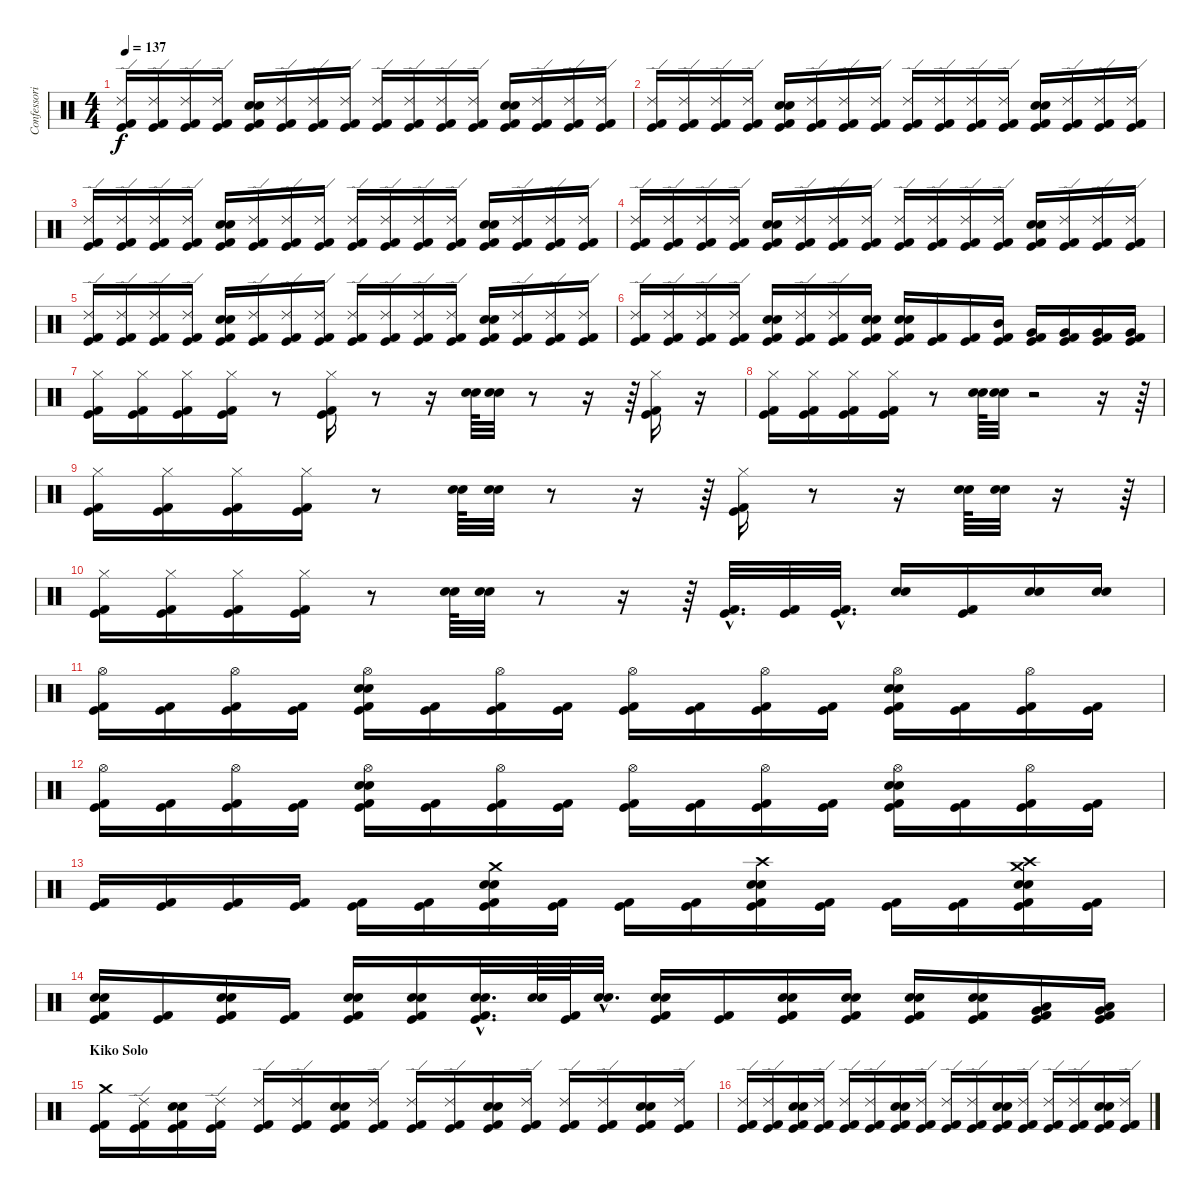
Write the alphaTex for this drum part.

\track ("Confessori" "Confessori") {instrument percussion}
\staff {score}
\articulation defaults
\ts (4 4)
\tempo 137
\clef neutral
\ks c
("Ride (edge) 2" "Kick (hit) 2" "Kick (hit)").16{dy f} ("Ride (edge) 2" "Kick (hit) 2" "Kick (hit)").16 ("Ride (edge) 2" "Kick (hit) 2" "Kick (hit)").16 ("Ride (edge) 2" "Kick (hit) 2" "Kick (hit)").16 ("Electric Snare (hit)" "Snare (hit) 2" "Kick (hit) 2" "Kick (hit)").16 ("Ride (edge) 2" "Kick (hit) 2" "Kick (hit)").16 ("Ride (edge) 2" "Kick (hit) 2" "Kick (hit)").16 ("Ride (edge) 2" "Kick (hit) 2" "Kick (hit)").16 ("Ride (edge) 2" "Kick (hit) 2" "Kick (hit)").16 ("Ride (edge) 2" "Kick (hit) 2" "Kick (hit)").16 ("Ride (edge) 2" "Kick (hit) 2" "Kick (hit)").16 ("Ride (edge) 2" "Kick (hit) 2" "Kick (hit)").16 ("Electric Snare (hit)" "Snare (hit) 2" "Kick (hit) 2" "Kick (hit)").16 ("Ride (edge) 2" "Kick (hit) 2" "Kick (hit)").16 ("Ride (edge) 2" "Kick (hit) 2" "Kick (hit)").16 ("Ride (edge) 2" "Kick (hit) 2" "Kick (hit)").16 |
("Ride (edge) 2" "Kick (hit) 2" "Kick (hit)").16 ("Ride (edge) 2" "Kick (hit) 2" "Kick (hit)").16 ("Ride (edge) 2" "Kick (hit) 2" "Kick (hit)").16 ("Ride (edge) 2" "Kick (hit) 2" "Kick (hit)").16 ("Electric Snare (hit)" "Snare (hit) 2" "Kick (hit) 2" "Kick (hit)").16 ("Ride (edge) 2" "Kick (hit) 2" "Kick (hit)").16 ("Ride (edge) 2" "Kick (hit) 2" "Kick (hit)").16 ("Ride (edge) 2" "Kick (hit) 2" "Kick (hit)").16 ("Ride (edge) 2" "Kick (hit) 2" "Kick (hit)").16 ("Ride (edge) 2" "Kick (hit) 2" "Kick (hit)").16 ("Ride (edge) 2" "Kick (hit) 2" "Kick (hit)").16 ("Ride (edge) 2" "Kick (hit) 2" "Kick (hit)").16 ("Electric Snare (hit)" "Snare (hit) 2" "Kick (hit) 2" "Kick (hit)").16 ("Ride (edge) 2" "Kick (hit) 2" "Kick (hit)").16 ("Ride (edge) 2" "Kick (hit) 2" "Kick (hit)").16 ("Ride (edge) 2" "Kick (hit) 2" "Kick (hit)").16 |
("Ride (edge) 2" "Kick (hit) 2" "Kick (hit)").16 ("Ride (edge) 2" "Kick (hit) 2" "Kick (hit)").16 ("Ride (edge) 2" "Kick (hit) 2" "Kick (hit)").16 ("Ride (edge) 2" "Kick (hit) 2" "Kick (hit)").16 ("Electric Snare (hit)" "Snare (hit) 2" "Kick (hit) 2" "Kick (hit)").16 ("Ride (edge) 2" "Kick (hit) 2" "Kick (hit)").16 ("Ride (edge) 2" "Kick (hit) 2" "Kick (hit)").16 ("Ride (edge) 2" "Kick (hit) 2" "Kick (hit)").16 ("Ride (edge) 2" "Kick (hit) 2" "Kick (hit)").16 ("Ride (edge) 2" "Kick (hit) 2" "Kick (hit)").16 ("Ride (edge) 2" "Kick (hit) 2" "Kick (hit)").16 ("Ride (edge) 2" "Kick (hit) 2" "Kick (hit)").16 ("Electric Snare (hit)" "Snare (hit) 2" "Kick (hit) 2" "Kick (hit)").16 ("Ride (edge) 2" "Kick (hit) 2" "Kick (hit)").16 ("Ride (edge) 2" "Kick (hit) 2" "Kick (hit)").16 ("Ride (edge) 2" "Kick (hit) 2" "Kick (hit)").16 |
("Ride (edge) 2" "Kick (hit) 2" "Kick (hit)").16 ("Ride (edge) 2" "Kick (hit) 2" "Kick (hit)").16 ("Ride (edge) 2" "Kick (hit) 2" "Kick (hit)").16 ("Ride (edge) 2" "Kick (hit) 2" "Kick (hit)").16 ("Electric Snare (hit)" "Snare (hit) 2" "Kick (hit) 2" "Kick (hit)").16 ("Ride (edge) 2" "Kick (hit) 2" "Kick (hit)").16 ("Ride (edge) 2" "Kick (hit) 2" "Kick (hit)").16 ("Ride (edge) 2" "Kick (hit) 2" "Kick (hit)").16 ("Ride (edge) 2" "Kick (hit) 2" "Kick (hit)").16 ("Ride (edge) 2" "Kick (hit) 2" "Kick (hit)").16 ("Ride (edge) 2" "Kick (hit) 2" "Kick (hit)").16 ("Ride (edge) 2" "Kick (hit) 2" "Kick (hit)").16 ("Electric Snare (hit)" "Snare (hit) 2" "Kick (hit) 2" "Kick (hit)").16 ("Ride (edge) 2" "Kick (hit) 2" "Kick (hit)").16 ("Ride (edge) 2" "Kick (hit) 2" "Kick (hit)").16 ("Ride (edge) 2" "Kick (hit) 2" "Kick (hit)").16 |
("Ride (edge) 2" "Kick (hit) 2" "Kick (hit)").16 ("Ride (edge) 2" "Kick (hit) 2" "Kick (hit)").16 ("Ride (edge) 2" "Kick (hit) 2" "Kick (hit)").16 ("Ride (edge) 2" "Kick (hit) 2" "Kick (hit)").16 ("Electric Snare (hit)" "Snare (hit) 2" "Kick (hit) 2" "Kick (hit)").16 ("Ride (edge) 2" "Kick (hit) 2" "Kick (hit)").16 ("Ride (edge) 2" "Kick (hit) 2" "Kick (hit)").16 ("Ride (edge) 2" "Kick (hit) 2" "Kick (hit)").16 ("Ride (edge) 2" "Kick (hit) 2" "Kick (hit)").16 ("Ride (edge) 2" "Kick (hit) 2" "Kick (hit)").16 ("Ride (edge) 2" "Kick (hit) 2" "Kick (hit)").16 ("Ride (edge) 2" "Kick (hit) 2" "Kick (hit)").16 ("Electric Snare (hit)" "Snare (hit) 2" "Kick (hit) 2" "Kick (hit)").16 ("Ride (edge) 2" "Kick (hit) 2" "Kick (hit)").16 ("Ride (edge) 2" "Kick (hit) 2" "Kick (hit)").16 ("Ride (edge) 2" "Kick (hit) 2" "Kick (hit)").16 |
("Ride (edge) 2" "Kick (hit) 2" "Kick (hit)").16 ("Ride (edge) 2" "Kick (hit) 2" "Kick (hit)").16 ("Ride (edge) 2" "Kick (hit) 2" "Kick (hit)").16 ("Ride (edge) 2" "Kick (hit) 2" "Kick (hit)").16 ("Electric Snare (hit)" "Snare (hit) 2" "Kick (hit) 2" "Kick (hit)").16 ("Ride (edge) 2" "Kick (hit) 2" "Kick (hit)").16 ("Ride (edge) 2" "Kick (hit) 2" "Kick (hit)").16 ("Electric Snare (hit)" "Snare (hit) 2" "Kick (hit) 2" "Kick (hit)").16 ("Electric Snare (hit)" "Snare (hit) 2" "Kick (hit) 2" "Kick (hit)").16 ("Kick (hit) 2" "Kick (hit)").16 ("Kick (hit) 2" "Kick (hit)").16 ("Mid Tom (hit)" "Kick (hit) 2" "Kick (hit)").16 ("Very Low Tom (hit)" "Kick (hit) 2" "Kick (hit)").16 ("Very Low Tom (hit)" "Kick (hit) 2" "Kick (hit)").16 ("Very Low Tom (hit)" "Kick (hit) 2" "Kick (hit)").16 ("Very Low Tom (hit)" "Kick (hit) 2" "Kick (hit)").16 |
("Hi-Hat (closed)" "Kick (hit) 2" "Kick (hit)").16 ("Hi-Hat (closed)" "Kick (hit) 2" "Kick (hit)").16 ("Hi-Hat (closed)" "Kick (hit) 2" "Kick (hit)").16 ("Hi-Hat (closed)" "Kick (hit) 2" "Kick (hit)").16 r.8 ("Hi-Hat (closed)" "Kick (hit) 2" "Kick (hit)").16 r.8 r.16 ("Electric Snare (hit)" "Snare (hit) 2").64 ("Electric Snare (hit)" "Snare (hit) 2").32 r.8 r.16 r.64 ("Hi-Hat (closed)" "Kick (hit) 2" "Kick (hit)").16 r.16 |
("Hi-Hat (closed)" "Kick (hit) 2" "Kick (hit)").16 ("Hi-Hat (closed)" "Kick (hit) 2" "Kick (hit)").16 ("Hi-Hat (closed)" "Kick (hit) 2" "Kick (hit)").16 ("Hi-Hat (closed)" "Kick (hit) 2" "Kick (hit)").16 r.8 ("Electric Snare (hit)" "Snare (hit) 2").64 ("Electric Snare (hit)" "Snare (hit) 2").32 r.2 r.16 r.64 |
("Hi-Hat (closed)" "Kick (hit) 2" "Kick (hit)").16 ("Hi-Hat (closed)" "Kick (hit) 2" "Kick (hit)").16 ("Hi-Hat (closed)" "Kick (hit) 2" "Kick (hit)").16 ("Hi-Hat (closed)" "Kick (hit) 2" "Kick (hit)").16 r.8 ("Electric Snare (hit)" "Snare (hit) 2").64 ("Electric Snare (hit)" "Snare (hit) 2").32 r.8 r.16 r.64 ("Hi-Hat (closed)" "Kick (hit) 2" "Kick (hit)").16 r.8 r.16 ("Electric Snare (hit)" "Snare (hit) 2").64 ("Electric Snare (hit)" "Snare (hit) 2").32 r.16 r.64 |
("Hi-Hat (closed)" "Kick (hit) 2" "Kick (hit)").16 ("Hi-Hat (closed)" "Kick (hit) 2" "Kick (hit)").16 ("Hi-Hat (closed)" "Kick (hit) 2" "Kick (hit)").16 ("Hi-Hat (closed)" "Kick (hit) 2" "Kick (hit)").16 r.8 ("Electric Snare (hit)" "Snare (hit) 2").64 ("Snare (hit) 2" "Electric Snare (hit)").32 r.8 r.16 r.64 ("Kick (hit) 2"{hac} "Kick (hit)"{hac}).32{d} ("Kick (hit) 2" "Kick (hit)").32 ("Kick (hit) 2"{hac} "Kick (hit)"{hac}).32{d} ("Electric Snare (hit)" "Snare (hit) 2").16 ("Kick (hit) 2" "Kick (hit)").16 ("Electric Snare (hit)" "Snare (hit) 2").16 ("Snare (hit) 2" "Electric Snare (hit)").16 |
("Hi-Hat (open)" "Kick (hit) 2" "Kick (hit)").16 ("Kick (hit) 2" "Kick (hit)").16 ("Hi-Hat (open)" "Kick (hit) 2" "Kick (hit)").16 ("Kick (hit) 2" "Kick (hit)").16 ("Electric Snare (hit)" "Snare (hit) 2" "Hi-Hat (open)" "Kick (hit) 2" "Kick (hit)").16 ("Kick (hit) 2" "Kick (hit)").16 ("Hi-Hat (open)" "Kick (hit)" "Kick (hit) 2").16 ("Kick (hit) 2" "Kick (hit)").16 ("Hi-Hat (open)" "Kick (hit) 2" "Kick (hit)").16 ("Kick (hit) 2" "Kick (hit)").16 ("Hi-Hat (open)" "Kick (hit) 2" "Kick (hit)").16 ("Kick (hit) 2" "Kick (hit)").16 ("Electric Snare (hit)" "Snare (hit) 2" "Hi-Hat (open)" "Kick (hit) 2" "Kick (hit)").16 ("Kick (hit) 2" "Kick (hit)").16 ("Hi-Hat (open)" "Kick (hit) 2" "Kick (hit)").16 ("Kick (hit) 2" "Kick (hit)").16 |
("Hi-Hat (open)" "Kick (hit) 2" "Kick (hit)").16 ("Kick (hit) 2" "Kick (hit)").16 ("Hi-Hat (open)" "Kick (hit) 2" "Kick (hit)").16 ("Kick (hit) 2" "Kick (hit)").16 ("Electric Snare (hit)" "Snare (hit) 2" "Hi-Hat (open)" "Kick (hit) 2" "Kick (hit)").16 ("Kick (hit) 2" "Kick (hit)").16 ("Hi-Hat (open)" "Kick (hit)" "Kick (hit) 2").16 ("Kick (hit) 2" "Kick (hit)").16 ("Hi-Hat (open)" "Kick (hit) 2" "Kick (hit)").16 ("Kick (hit) 2" "Kick (hit)").16 ("Hi-Hat (open)" "Kick (hit) 2" "Kick (hit)").16 ("Kick (hit) 2" "Kick (hit)").16 ("Electric Snare (hit)" "Snare (hit) 2" "Hi-Hat (open)" "Kick (hit) 2" "Kick (hit)").16 ("Kick (hit) 2" "Kick (hit)").16 ("Hi-Hat (open)" "Kick (hit) 2" "Kick (hit)").16 ("Kick (hit) 2" "Kick (hit)").16 |
("Kick (hit) 2" "Kick (hit)").16 ("Kick (hit) 2" "Kick (hit)").16 ("Kick (hit) 2" "Kick (hit)").16 ("Kick (hit) 2" "Kick (hit)").16 ("Kick (hit) 2" "Kick (hit)").16 ("Kick (hit) 2" "Kick (hit)").16 ("Crash medium (hit)" "Electric Snare (hit)" "Snare (hit) 2" "Kick (hit)" "Kick (hit) 2").16 ("Kick (hit) 2" "Kick (hit)").16 ("Kick (hit) 2" "Kick (hit)").16 ("Kick (hit) 2" "Kick (hit)").16 ("Crash high (hit)" "Electric Snare (hit)" "Snare (hit) 2" "Kick (hit) 2" "Kick (hit)").16 ("Kick (hit) 2" "Kick (hit)").16 ("Kick (hit) 2" "Kick (hit)").16 ("Kick (hit) 2" "Kick (hit)").16 ("Crash high (hit)" "Crash medium (hit)" "Electric Snare (hit)" "Snare (hit) 2" "Kick (hit) 2" "Kick (hit)").16 ("Kick (hit) 2" "Kick (hit)").16 |
("Snare (hit) 2" "Electric Snare (hit)" "Kick (hit) 2" "Kick (hit)").16 ("Kick (hit) 2" "Kick (hit)").16 ("Snare (hit) 2" "Electric Snare (hit)" "Kick (hit) 2" "Kick (hit)").16 ("Kick (hit) 2" "Kick (hit)").16 ("Electric Snare (hit)" "Snare (hit) 2" "Kick (hit) 2" "Kick (hit)").16 ("Electric Snare (hit)" "Snare (hit) 2" "Kick (hit) 2" "Kick (hit)").16 ("Electric Snare (hit)"{hac} "Snare (hit) 2"{hac} "Kick (hit)"{hac} "Kick (hit) 2"{hac}).32{d} ("Electric Snare (hit)" "Snare (hit) 2").64 ("Kick (hit) 2" "Kick (hit)").64 ("Electric Snare (hit)"{hac} "Snare (hit) 2"{hac}).32{d} ("Snare (hit) 2" "Electric Snare (hit)" "Kick (hit) 2" "Kick (hit)").16 ("Kick (hit) 2" "Kick (hit)").16 ("Snare (hit) 2" "Electric Snare (hit)" "Kick (hit) 2" "Kick (hit)").16 ("Snare (hit) 2" "Electric Snare (hit)" "Kick (hit) 2" "Kick (hit)").16 ("Snare (hit) 2" "Electric Snare (hit)" "Kick (hit) 2" "Kick (hit)").16 ("Snare (hit) 2" "Electric Snare (hit)" "Kick (hit) 2" "Kick (hit)").16 ("Low Tom (hit)" "Very Low Tom (hit)" "Kick (hit) 2" "Kick (hit)").16 ("Low Tom (hit)" "Very Low Tom (hit)" "Kick (hit) 2" "Kick (hit)").16 |
\section ("" "Kiko Solo")
("Crash medium (hit)" "Kick (hit) 2" "Kick (hit)").16 ("Ride (edge) 2" "Kick (hit) 2" "Kick (hit)").16 ("Electric Snare (hit)" "Snare (hit) 2" "Kick (hit) 2" "Kick (hit)").16 ("Ride (edge) 2" "Kick (hit) 2" "Kick (hit)").16 ("Ride (edge) 2" "Kick (hit) 2" "Kick (hit)").16 ("Ride (edge) 2" "Kick (hit) 2" "Kick (hit)").16 ("Electric Snare (hit)" "Snare (hit) 2" "Kick (hit) 2" "Kick (hit)").16 ("Ride (edge) 2" "Kick (hit) 2" "Kick (hit)").16 ("Ride (edge) 2" "Kick (hit) 2" "Kick (hit)").16 ("Ride (edge) 2" "Kick (hit) 2" "Kick (hit)").16 ("Electric Snare (hit)" "Snare (hit) 2" "Kick (hit) 2" "Kick (hit)").16 ("Ride (edge) 2" "Kick (hit) 2" "Kick (hit)").16 ("Ride (edge) 2" "Kick (hit) 2" "Kick (hit)").16 ("Ride (edge) 2" "Kick (hit) 2" "Kick (hit)").16 ("Electric Snare (hit)" "Snare (hit) 2" "Kick (hit) 2" "Kick (hit)").16 ("Ride (edge) 2" "Kick (hit) 2" "Kick (hit)").16 |
("Ride (edge) 2" "Kick (hit) 2" "Kick (hit)").16 ("Ride (edge) 2" "Kick (hit) 2" "Kick (hit)").16 ("Electric Snare (hit)" "Snare (hit) 2" "Kick (hit) 2" "Kick (hit)").16 ("Ride (edge) 2" "Kick (hit) 2" "Kick (hit)").16 ("Ride (edge) 2" "Kick (hit) 2" "Kick (hit)").16 ("Ride (edge) 2" "Kick (hit) 2" "Kick (hit)").16 ("Electric Snare (hit)" "Snare (hit) 2" "Kick (hit) 2" "Kick (hit)").16 ("Ride (edge) 2" "Kick (hit) 2" "Kick (hit)").16 ("Ride (edge) 2" "Kick (hit) 2" "Kick (hit)").16 ("Ride (edge) 2" "Kick (hit) 2" "Kick (hit)").16 ("Electric Snare (hit)" "Snare (hit) 2" "Kick (hit) 2" "Kick (hit)").16 ("Ride (edge) 2" "Kick (hit) 2" "Kick (hit)").16 ("Ride (edge) 2" "Kick (hit) 2" "Kick (hit)").16 ("Ride (edge) 2" "Kick (hit) 2" "Kick (hit)").16 ("Electric Snare (hit)" "Snare (hit) 2" "Kick (hit) 2" "Kick (hit)").16 ("Ride (edge) 2" "Kick (hit) 2" "Kick (hit)").16
